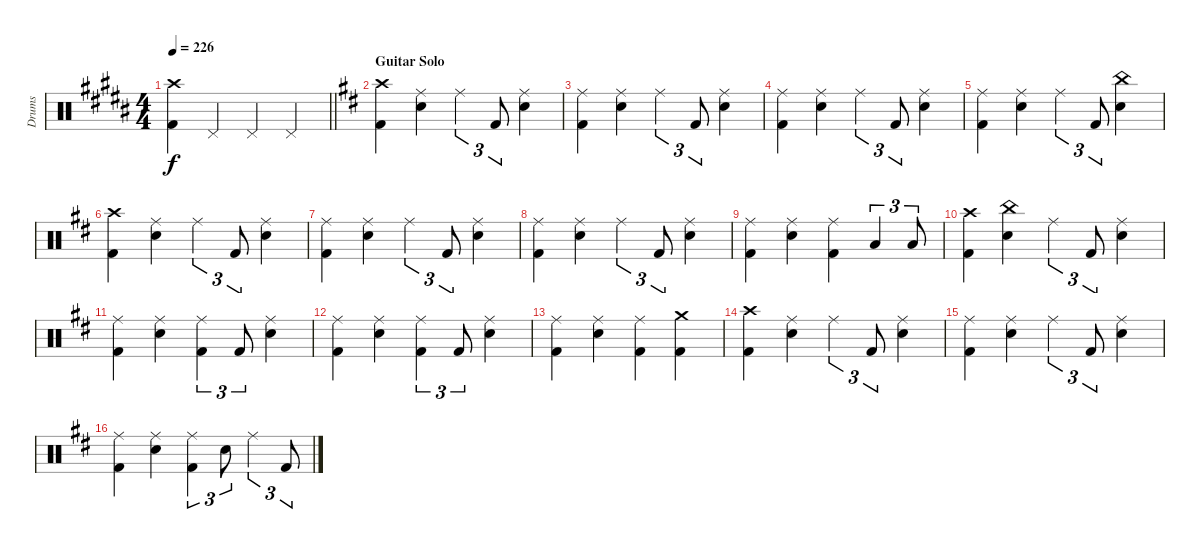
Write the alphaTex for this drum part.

\track ("Drums" "Drums") {instrument percussion}
\staff {score}
\articulation defaults
\ts (4 4)
\tempo 226
\clef neutral
\barLineRight lightlight
\ks b
("Crash high (hit)" "Kick (hit) 2").4{dy f} "Pedal Hi-Hat (hit)".4 "Pedal Hi-Hat (hit)".4 "Pedal Hi-Hat (hit)".4 |
\section ("" "Guitar Solo")
\ks d
("Crash high (hit)" "Kick (hit) 2").4 ("Ride (middle)" "Snare (hit) 2").4 "Ride (middle)".4{tu (3 2)} "Kick (hit) 2".8{tu (3 2)} ("Ride (middle)" "Snare (hit) 2").4 |
("Ride (middle)" "Kick (hit) 2").4 ("Ride (middle)" "Snare (hit) 2").4 "Ride (middle)".4{tu (3 2)} "Kick (hit) 2".8{tu (3 2)} ("Ride (middle)" "Snare (hit) 2").4 |
("Ride (middle)" "Kick (hit) 2").4 ("Ride (middle)" "Snare (hit) 2").4 "Ride (middle)".4{tu (3 2)} "Kick (hit) 2".8{tu (3 2)} ("Ride (middle)" "Snare (hit) 2").4 |
("Ride (middle)" "Kick (hit) 2").4 ("Ride (middle)" "Snare (hit) 2").4 "Ride (middle)".4{tu (3 2)} "Kick (hit) 2".8{tu (3 2)} ("China (hit)" "Snare (hit) 2").4 |
("Crash high (hit)" "Kick (hit) 2").4 ("Ride (middle)" "Snare (hit) 2").4 "Ride (middle)".4{tu (3 2)} "Kick (hit) 2".8{tu (3 2)} ("Ride (middle)" "Snare (hit) 2").4 |
("Ride (middle)" "Kick (hit) 2").4 ("Ride (middle)" "Snare (hit) 2").4 "Ride (middle)".4{tu (3 2)} "Kick (hit) 2".8{tu (3 2)} ("Ride (middle)" "Snare (hit) 2").4 |
("Ride (middle)" "Kick (hit) 2").4 ("Ride (middle)" "Snare (hit) 2").4 "Ride (middle)".4{tu (3 2)} "Kick (hit) 2".8{tu (3 2)} ("Ride (middle)" "Snare (hit) 2").4 |
("Ride (middle)" "Kick (hit) 2").4 ("Ride (middle)" "Snare (hit) 2").4 ("Ride (middle)" "Kick (hit) 2").4 "Low Tom (hit)".4{tu (3 2)} "Low Tom (hit)".8{tu (3 2)} |
("Crash high (hit)" "Kick (hit) 2").4 ("China (hit)" "Snare (hit) 2").4 "Ride (middle)".4{tu (3 2)} "Kick (hit) 2".8{tu (3 2)} ("Ride (middle)" "Snare (hit) 2").4 |
("Ride (middle)" "Kick (hit) 2").4 ("Ride (middle)" "Snare (hit) 2").4 ("Ride (middle)" "Kick (hit) 2").4{tu (3 2)} "Kick (hit) 2".8{tu (3 2)} ("Ride (middle)" "Snare (hit) 2").4 |
("Ride (middle)" "Kick (hit) 2").4 ("Ride (middle)" "Snare (hit) 2").4 ("Ride (middle)" "Kick (hit) 2").4{tu (3 2)} "Kick (hit) 2".8{tu (3 2)} ("Ride (middle)" "Snare (hit) 2").4 |
("Ride (middle)" "Kick (hit) 2").4 ("Ride (middle)" "Snare (hit) 2").4 ("Ride (middle)" "Kick (hit) 2").4 ("Crash medium (hit)" "Kick (hit) 2").4 |
("Crash high (hit)" "Kick (hit) 2").4 ("Ride (middle)" "Snare (hit) 2").4 "Ride (middle)".4{tu (3 2)} "Kick (hit) 2".8{tu (3 2)} ("Ride (middle)" "Snare (hit) 2").4 |
("Ride (middle)" "Kick (hit) 2").4 ("Ride (middle)" "Snare (hit) 2").4 "Ride (middle)".4{tu (3 2)} "Kick (hit) 2".8{tu (3 2)} ("Ride (middle)" "Snare (hit) 2").4 |
("Ride (middle)" "Kick (hit) 2").4 ("Ride (middle)" "Snare (hit) 2").4 ("Ride (middle)" "Kick (hit) 2").4{tu (3 2)} "Snare (hit) 2".8{tu (3 2)} "Ride (middle)".4{tu (3 2)} "Kick (hit) 2".8{tu (3 2)}
